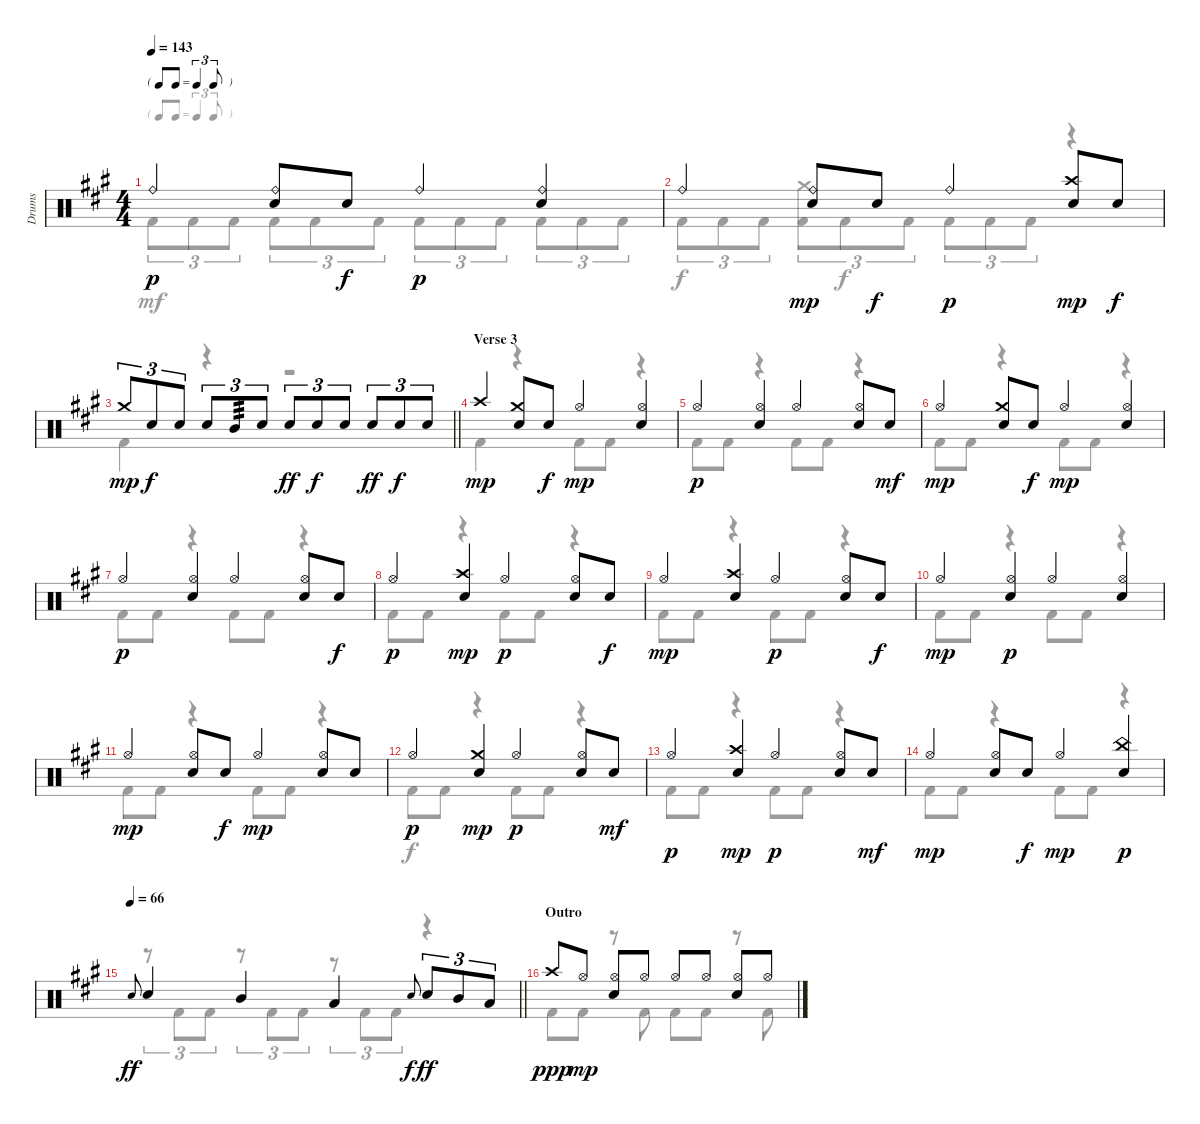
\track ("Drums" "Drums") {instrument percussion}
\staff {score}
\articulation defaults
\voice
\ts (4 4)
\tf triplet8th
\tempo 143
\clef neutral
\ks a "Ride (bell)".4{dy p}
("Electric Snare (hit)" "Ride (bell)").8 "Electric Snare (hit)".8{dy f} "Ride (bell)".4{dy p} ("Ride (bell)" "Electric Snare (hit)").4 |
"Ride (bell)".4 ("Ride (bell)" "Electric Snare (hit)").8{dy mp} "Electric Snare (hit)".8{dy f} "Ride (bell)".4{dy p} ("Crash high (hit)" "Electric Snare (hit)").8{dy mp} "Electric Snare (hit)".8{dy f} |
\barLineRight lightlight "Crash medium (hit)".8{tu (3 2) dy mp} "Electric Snare (hit)".8{tu (3 2) dy f} "Electric Snare (hit)".8{tu (3 2)} "Electric Snare (hit)".8{tu (3 2)} "Mid Tom (hit)".8{tu (3 2) tp 3} "Electric Snare (hit)".8{tu (3 2)} "Electric Snare (hit)".8{tu (3 2) dy ff} "Electric Snare (hit)".8{tu (3 2) dy f} "Electric Snare (hit)".8{tu (3 2)} "Electric Snare (hit)".8{tu (3 2) dy ff} "Electric Snare (hit)".8{tu (3 2) dy f} "Electric Snare (hit)".8{tu (3 2)}
|
\section ("" "Verse 3")
"Crash high (hit)".4{dy mp} ("Electric Snare (hit)" "Crash medium (hit)").8 "Electric Snare (hit)".8{dy f} "Hi-Hat (open)".4{dy mp} ("Hi-Hat (open)" "Electric Snare (hit)").4 |
"Hi-Hat (open)".4{dy p} ("Hi-Hat (open)" "Electric Snare (hit)").4 "Hi-Hat (open)".4 ("Hi-Hat (open)" "Electric Snare (hit)").8 "Electric Snare (hit)".8{dy mf} |
"Hi-Hat (open)".4{dy mp} ("Electric Snare (hit)" "Crash medium (hit)").8 "Electric Snare (hit)".8{dy f} "Hi-Hat (open)".4{dy mp} ("Hi-Hat (open)" "Electric Snare (hit)").4 |
"Hi-Hat (open)".4{dy p} ("Hi-Hat (open)" "Electric Snare (hit)").4 "Hi-Hat (open)".4 ("Hi-Hat (open)" "Electric Snare (hit)").8 "Electric Snare (hit)".8{dy f} |
"Hi-Hat (open)".4{dy p} ("Crash high (hit)" "Electric Snare (hit)").4{dy mp} "Hi-Hat (open)".4{dy p} ("Hi-Hat (open)" "Electric Snare (hit)").8 "Electric Snare (hit)".8{dy f} |
"Hi-Hat (open)".4{dy mp} ("Crash high (hit)" "Electric Snare (hit)").4 "Hi-Hat (open)".4{dy p} ("Hi-Hat (open)" "Electric Snare (hit)").8 "Electric Snare (hit)".8{dy f} |
"Hi-Hat (open)".4{dy mp} ("Hi-Hat (open)" "Electric Snare (hit)").4{dy p} "Hi-Hat (open)".4 ("Hi-Hat (open)" "Electric Snare (hit)").4 |
"Hi-Hat (open)".4{dy mp} ("Hi-Hat (open)" "Electric Snare (hit)").8 "Electric Snare (hit)".8{dy f} "Hi-Hat (open)".4{dy mp} ("Hi-Hat (open)" "Electric Snare (hit)").8 "Electric Snare (hit)".8 |
"Hi-Hat (open)".4{dy p} ("Crash medium (hit)" "Electric Snare (hit)").4{dy mp} "Hi-Hat (open)".4{dy p} ("Hi-Hat (open)" "Electric Snare (hit)").8 "Electric Snare (hit)".8{dy mf} |
"Hi-Hat (open)".4{dy p} ("Crash high (hit)" "Electric Snare (hit)").4{dy mp} "Hi-Hat (open)".4{dy p} ("Hi-Hat (open)" "Electric Snare (hit)").8 "Electric Snare (hit)".8{dy mf} |
"Hi-Hat (open)".4{dy mp} ("Electric Snare (hit)" "Hi-Hat (open)").8 "Electric Snare (hit)".8{dy f} "Hi-Hat (open)".4{dy mp} ("China (hit)" "Electric Snare (hit)").4{dy p} |
\tempo 66
\barLineRight lightlight "Electric Snare (hit)".8{gr onbeat dy ff} "Electric Snare (hit)".4 "Mid Tom (hit)".4 "Low Tom (hit)".4 "Electric Snare (hit)".8{gr onbeat dy f} "Electric Snare (hit)".8{tu (3 2) dy ff} "Mid Tom (hit)".8{tu (3 2)} "Low Tom (hit)".8{tu (3 2)}
|
\section ("" "Outro")
"Crash high (hit)".8{dy ppp} "Hi-Hat (open)".8{dy mp} ("Hi-Hat (open)" "Electric Snare (hit)").8 "Hi-Hat (open)".8 "Hi-Hat (open)".8 "Hi-Hat (open)".8 ("Hi-Hat (open)" "Electric Snare (hit)").8 "Hi-Hat (open)".8
\voice
\clef neutral
\ottava regular
\simile none
\ks a "Kick (hit) 2".8{tu (3 2) dy mf} "Kick (hit) 2".8{tu (3 2)} "Kick (hit) 2".8{tu (3 2)} "Kick (hit) 2".8{tu (3 2)} "Kick (hit) 2".8{tu (3 2)} "Kick (hit) 2".8{tu (3 2)} "Kick (hit) 2".8{tu (3 2)} "Kick (hit) 2".8{tu (3 2)} "Kick (hit) 2".8{tu (3 2)} "Kick (hit) 2".8{tu (3 2)} "Kick (hit) 2".8{tu (3 2)} "Kick (hit) 2".8{tu (3 2)}
|
"Kick (hit) 2".8{tu (3 2) dy f} "Kick (hit) 2".8{tu (3 2)} "Kick (hit) 2".8{tu (3 2)} ("Kick (hit) 2" "Crash medium (hit)").8{tu (3 2) dy mp} "Kick (hit) 2".8{tu (3 2) dy f} "Kick (hit) 2".8{tu (3 2)} "Kick (hit) 2".8{tu (3 2)} "Kick (hit) 2".8{tu (3 2)} "Kick (hit) 2".8{tu (3 2)} r.4 |
\barLineRight lightlight "Kick (hit) 2".4
r.4 r.2 |
"Kick (hit) 2".4 r.4 "Kick (hit) 2".8 "Kick (hit) 2".8 r.4 |
"Kick (hit) 2".8 "Kick (hit) 2".8 r.4 "Kick (hit) 2".8 "Kick (hit) 2".8 r.4 |
"Kick (hit) 2".8 "Kick (hit) 2".8 r.4 "Kick (hit) 2".8 "Kick (hit) 2".8 r.4 |
"Kick (hit) 2".8 "Kick (hit) 2".8 r.4 "Kick (hit) 2".8 "Kick (hit) 2".8 r.4 |
"Kick (hit) 2".8 "Kick (hit) 2".8 r.4 "Kick (hit) 2".8 "Kick (hit) 2".8 r.4 |
"Kick (hit) 2".8 "Kick (hit) 2".8 r.4 "Kick (hit) 2".8 "Kick (hit) 2".8 r.4 |
"Kick (hit) 2".8 "Kick (hit) 2".8 r.4 "Kick (hit) 2".8 "Kick (hit) 2".8 r.4 |
"Kick (hit) 2".8 "Kick (hit) 2".8 r.4 "Kick (hit) 2".8{dy mp} "Kick (hit) 2".8 r.4 |
"Kick (hit) 2".8{dy f} "Kick (hit) 2".8 r.4 "Kick (hit) 2".8 "Kick (hit) 2".8 r.4 |
"Kick (hit) 2".8 "Kick (hit) 2".8 r.4 "Kick (hit) 2".8 "Kick (hit) 2".8 r.4 |
"Kick (hit) 2".8 "Kick (hit) 2".8 r.4 "Kick (hit) 2".8 "Kick (hit) 2".8 r.4 |
\barLineRight lightlight
r.8{tu (3 2)} "Kick (hit) 2".8{tu (3 2)} "Kick (hit) 2".8{tu (3 2)} r.8{tu (3 2)} "Kick (hit) 2".8{tu (3 2)} "Kick (hit) 2".8{tu (3 2)} r.8{tu (3 2)} "Kick (hit) 2".8{tu (3 2)} "Kick (hit) 2".8{tu (3 2)} r.4 |
"Kick (hit) 2".8 "Kick (hit) 2".8 r.8 "Kick (hit) 2".8 "Kick (hit) 2".8 "Kick (hit) 2".8 r.8 "Kick (hit) 2".8
